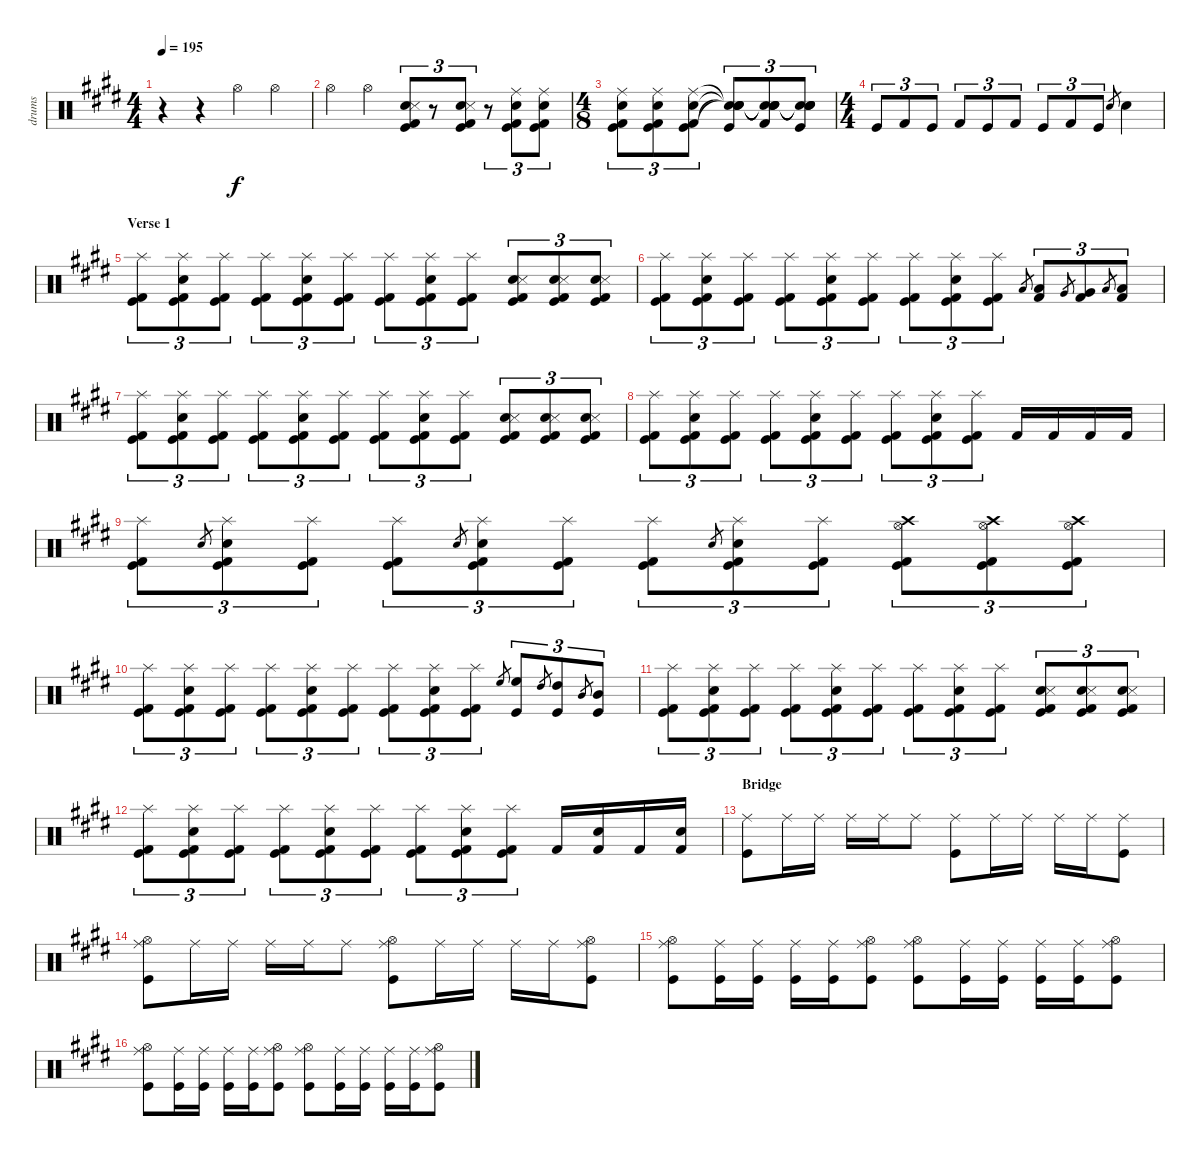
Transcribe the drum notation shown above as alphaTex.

\track ("drums" "drums") {instrument percussion}
\staff {score}
\articulation defaults
\ts (4 4)
\tempo 195
\clef neutral
\ks e
r.4{dy f} r.4 "Hi-Hat (open)".4 "Hi-Hat (open)".4 |
"Hi-Hat (open)".4 "Hi-Hat (open)".4 ("Electric Snare (hit)" "Snare (side stick) 3" "Kick (hit)" "Kick (hit) 2").8{tu (3 2)} r.8{tu (3 2)} ("Electric Snare (hit)" "Snare (side stick) 3" "Kick (hit)" "Kick (hit) 2").8{tu (3 2)} r.8{tu (3 2)} ("Ride (middle)" "Electric Snare (hit)" "Kick (hit)" "Kick (hit) 2").8{tu (3 2)} ("Ride (middle)" "Electric Snare (hit)" "Kick (hit)" "Kick (hit) 2").8{tu (3 2)} |
\ts (4 8)
("Ride (middle)" "Electric Snare (hit)" "Kick (hit)" "Kick (hit) 2").8{tu (3 2)} ("Ride (middle)" "Electric Snare (hit)" "Kick (hit)" "Kick (hit) 2").8{tu (3 2)} ("Ride (middle)" "Electric Snare (hit)" "Kick (hit)" "Kick (hit) 2").8{tu (3 2)} ("Snare (hit)"{t} "Snare (hit)"{t} "Snare (hit)"{t} "Snare (hit)"{t} "Kick (hit)").8{tu (3 2)} ("Snare (hit)"{t} "Snare (hit)"{t} "Snare (hit)"{t} "Snare (hit)"{t} "Kick (hit) 2").8{tu (3 2)} ("Snare (hit)"{t} "Snare (hit)"{t} "Snare (hit)"{t} "Snare (hit)"{t} "Kick (hit)").8{tu (3 2)} |
\ts (4 4)
"Kick (hit)".8{tu (3 2)} "Kick (hit) 2".8{tu (3 2)} "Kick (hit)".8{tu (3 2)} "Kick (hit) 2".8{tu (3 2)} "Kick (hit)".8{tu (3 2)} "Kick (hit) 2".8{tu (3 2)} "Kick (hit)".8{tu (3 2)} "Kick (hit) 2".8{tu (3 2)} "Kick (hit)".8{tu (3 2)} "Snare (hit) 2".8{gr} "Snare (hit) 2".4 |
\section ("" "Verse 1")
("Kick (hit) 2" "Kick (hit)" "Splash (hit)").8{tu (3 2)} ("Kick (hit) 2" "Kick (hit)" "Splash (hit)" "Snare (hit) 2").8{tu (3 2)} ("Kick (hit) 2" "Kick (hit)" "Splash (hit)").8{tu (3 2)} ("Kick (hit) 2" "Kick (hit)" "Splash (hit)").8{tu (3 2)} ("Kick (hit) 2" "Kick (hit)" "Splash (hit)" "Snare (hit) 2").8{tu (3 2)} ("Kick (hit) 2" "Kick (hit)" "Splash (hit)").8{tu (3 2)} ("Kick (hit) 2" "Kick (hit)" "Splash (hit)").8{tu (3 2)} ("Kick (hit) 2" "Kick (hit)" "Splash (hit)" "Snare (hit) 2").8{tu (3 2)} ("Kick (hit) 2" "Kick (hit)" "Splash (hit)").8{tu (3 2)} ("Kick (hit) 2" "Kick (hit)" "Electric Snare (hit)" "Snare (side stick) 3").8{tu (3 2)} ("Kick (hit) 2" "Kick (hit)" "Electric Snare (hit)" "Snare (side stick) 3").8{tu (3 2)} ("Kick (hit) 2" "Kick (hit)" "Electric Snare (hit)" "Snare (side stick) 3").8{tu (3 2)} |
("Kick (hit) 2" "Kick (hit)" "Splash (hit)").8{tu (3 2)} ("Kick (hit) 2" "Kick (hit)" "Splash (hit)" "Snare (hit) 2").8{tu (3 2)} ("Kick (hit) 2" "Kick (hit)" "Splash (hit)").8{tu (3 2)} ("Kick (hit) 2" "Kick (hit)" "Splash (hit)").8{tu (3 2)} ("Kick (hit) 2" "Kick (hit)" "Splash (hit)" "Snare (hit) 2").8{tu (3 2)} ("Kick (hit) 2" "Kick (hit)" "Splash (hit)").8{tu (3 2)} ("Kick (hit) 2" "Kick (hit)" "Splash (hit)").8{tu (3 2)} ("Kick (hit) 2" "Kick (hit)" "Splash (hit)" "Snare (hit) 2").8{tu (3 2)} ("Kick (hit) 2" "Kick (hit)" "Splash (hit)").8{tu (3 2)} "Low Tom (hit)".8{gr} ("Low Tom (hit)" "Kick (hit) 2").8{tu (3 2)} "Very Low Tom (hit)".8{gr} ("Very Low Tom (hit)" "Kick (hit) 2").8{tu (3 2)} "Low Floor Tom (hit)".8{gr} ("Low Floor Tom (hit)" "Kick (hit) 2").8{tu (3 2)} |
("Kick (hit) 2" "Kick (hit)" "Splash (hit)").8{tu (3 2)} ("Kick (hit) 2" "Kick (hit)" "Splash (hit)" "Snare (hit) 2").8{tu (3 2)} ("Kick (hit) 2" "Kick (hit)" "Splash (hit)").8{tu (3 2)} ("Kick (hit) 2" "Kick (hit)" "Splash (hit)").8{tu (3 2)} ("Kick (hit) 2" "Kick (hit)" "Splash (hit)" "Snare (hit) 2").8{tu (3 2)} ("Kick (hit) 2" "Kick (hit)" "Splash (hit)").8{tu (3 2)} ("Kick (hit) 2" "Kick (hit)" "Splash (hit)").8{tu (3 2)} ("Kick (hit) 2" "Kick (hit)" "Splash (hit)" "Snare (hit) 2").8{tu (3 2)} ("Kick (hit) 2" "Kick (hit)" "Splash (hit)").8{tu (3 2)} ("Kick (hit) 2" "Kick (hit)" "Electric Snare (hit)" "Snare (side stick) 3").8{tu (3 2)} ("Kick (hit) 2" "Kick (hit)" "Electric Snare (hit)" "Snare (side stick) 3").8{tu (3 2)} ("Kick (hit) 2" "Kick (hit)" "Electric Snare (hit)" "Snare (side stick) 3").8{tu (3 2)} |
("Kick (hit) 2" "Kick (hit)" "Splash (hit)").8{tu (3 2)} ("Kick (hit) 2" "Kick (hit)" "Splash (hit)" "Snare (hit) 2").8{tu (3 2)} ("Kick (hit) 2" "Kick (hit)" "Splash (hit)").8{tu (3 2)} ("Kick (hit) 2" "Kick (hit)" "Splash (hit)").8{tu (3 2)} ("Kick (hit) 2" "Kick (hit)" "Splash (hit)" "Snare (hit) 2").8{tu (3 2)} ("Kick (hit) 2" "Kick (hit)" "Splash (hit)").8{tu (3 2)} ("Kick (hit) 2" "Kick (hit)" "Splash (hit)").8{tu (3 2)} ("Kick (hit) 2" "Kick (hit)" "Splash (hit)" "Snare (hit) 2").8{tu (3 2)} ("Kick (hit) 2" "Kick (hit)" "Splash (hit)").8{tu (3 2)} "Kick (hit) 2".16 "Kick (hit) 2".16 "Kick (hit) 2".16 "Kick (hit) 2".16 |
("Kick (hit) 2" "Kick (hit)" "Splash (hit)").8{tu (3 2)} "Snare (hit) 2".8{gr} ("Kick (hit) 2" "Kick (hit)" "Splash (hit)" "Snare (hit) 2").8{tu (3 2)} ("Kick (hit) 2" "Kick (hit)" "Splash (hit)").8{tu (3 2)} ("Kick (hit) 2" "Kick (hit)" "Splash (hit)").8{tu (3 2)} "Snare (hit) 2".8{gr} ("Kick (hit) 2" "Kick (hit)" "Splash (hit)" "Snare (hit) 2").8{tu (3 2)} ("Kick (hit) 2" "Kick (hit)" "Splash (hit)").8{tu (3 2)} ("Kick (hit) 2" "Kick (hit)" "Splash (hit)").8{tu (3 2)} "Snare (hit) 2".8{gr} ("Kick (hit) 2" "Kick (hit)" "Splash (hit)" "Snare (hit) 2").8{tu (3 2)} ("Kick (hit) 2" "Kick (hit)" "Splash (hit)").8{tu (3 2)} ("Kick (hit) 2" "Kick (hit)" "Crash high (hit)" "Hi-Hat (open)").8{tu (3 2)} ("Kick (hit) 2" "Kick (hit)" "Crash high (hit)" "Hi-Hat (open)").8{tu (3 2)} ("Kick (hit) 2" "Kick (hit)" "Crash high (hit)" "Hi-Hat (open)").8{tu (3 2)} |
("Kick (hit) 2" "Kick (hit)" "Splash (hit)").8{tu (3 2)} ("Kick (hit) 2" "Kick (hit)" "Splash (hit)" "Snare (hit) 2").8{tu (3 2)} ("Kick (hit) 2" "Kick (hit)" "Splash (hit)").8{tu (3 2)} ("Kick (hit) 2" "Kick (hit)" "Splash (hit)").8{tu (3 2)} ("Kick (hit) 2" "Kick (hit)" "Splash (hit)" "Snare (hit) 2").8{tu (3 2)} ("Kick (hit) 2" "Kick (hit)" "Splash (hit)").8{tu (3 2)} ("Kick (hit) 2" "Kick (hit)" "Splash (hit)").8{tu (3 2)} ("Kick (hit) 2" "Kick (hit)" "Splash (hit)" "Snare (hit) 2").8{tu (3 2)} ("Kick (hit) 2" "Kick (hit)" "Splash (hit)").8{tu (3 2)} "High Floor Tom (hit)".8{gr} ("High Floor Tom (hit)" "Kick (hit)").8{tu (3 2)} "High Tom (hit)".8{gr} ("High Tom (hit)" "Kick (hit)").8{tu (3 2)} "Mid Tom (hit)".8{gr} ("Mid Tom (hit)" "Kick (hit)").8{tu (3 2)} |
("Kick (hit) 2" "Kick (hit)" "Splash (hit)").8{tu (3 2)} ("Kick (hit) 2" "Kick (hit)" "Splash (hit)" "Snare (hit) 2").8{tu (3 2)} ("Kick (hit) 2" "Kick (hit)" "Splash (hit)").8{tu (3 2)} ("Kick (hit) 2" "Kick (hit)" "Splash (hit)").8{tu (3 2)} ("Kick (hit) 2" "Kick (hit)" "Splash (hit)" "Snare (hit) 2").8{tu (3 2)} ("Kick (hit) 2" "Kick (hit)" "Splash (hit)").8{tu (3 2)} ("Kick (hit) 2" "Kick (hit)" "Splash (hit)").8{tu (3 2)} ("Kick (hit) 2" "Kick (hit)" "Splash (hit)" "Snare (hit) 2").8{tu (3 2)} ("Kick (hit) 2" "Kick (hit)" "Splash (hit)").8{tu (3 2)} ("Kick (hit) 2" "Kick (hit)" "Electric Snare (hit)" "Snare (side stick) 3").8{tu (3 2)} ("Kick (hit) 2" "Kick (hit)" "Electric Snare (hit)" "Snare (side stick) 3").8{tu (3 2)} ("Kick (hit) 2" "Kick (hit)" "Electric Snare (hit)" "Snare (side stick) 3").8{tu (3 2)} |
("Kick (hit) 2" "Kick (hit)" "Splash (hit)").8{tu (3 2)} ("Kick (hit) 2" "Kick (hit)" "Splash (hit)" "Snare (hit) 2").8{tu (3 2)} ("Kick (hit) 2" "Kick (hit)" "Splash (hit)").8{tu (3 2)} ("Kick (hit) 2" "Kick (hit)" "Splash (hit)").8{tu (3 2)} ("Kick (hit) 2" "Kick (hit)" "Splash (hit)" "Snare (hit) 2").8{tu (3 2)} ("Kick (hit) 2" "Kick (hit)" "Splash (hit)").8{tu (3 2)} ("Kick (hit) 2" "Kick (hit)" "Splash (hit)").8{tu (3 2)} ("Kick (hit) 2" "Kick (hit)" "Splash (hit)" "Snare (hit) 2").8{tu (3 2)} ("Kick (hit) 2" "Kick (hit)" "Splash (hit)").8{tu (3 2)} "Kick (hit) 2".16 ("Snare (hit) 2" "Kick (hit) 2").16 "Kick (hit) 2".16 ("Snare (hit) 2" "Kick (hit) 2").16 |
\section ("" "Bridge")
("Ride (middle)" "Kick (hit)").8 "Ride (middle)".16 "Ride (middle)".16 "Ride (middle)".16 "Ride (middle)".16 "Ride (middle)".8 ("Ride (middle)" "Kick (hit)").8 "Ride (middle)".16 "Ride (middle)".16 "Ride (middle)".16 "Ride (middle)".16 ("Ride (middle)" "Kick (hit)").8 |
("Ride (middle)" "Hi-Hat (open)" "Kick (hit)").8 "Ride (middle)".16 "Ride (middle)".16 "Ride (middle)".16 "Ride (middle)".16 "Ride (middle)".8 ("Ride (middle)" "Hi-Hat (open)" "Kick (hit)").8 "Ride (middle)".16 "Ride (middle)".16 "Ride (middle)".16 "Ride (middle)".16 ("Ride (middle)" "Hi-Hat (open)" "Kick (hit)").8 |
("Ride (middle)" "Hi-Hat (open)" "Kick (hit)").8 ("Ride (middle)" "Kick (hit)").16 ("Ride (middle)" "Kick (hit)").16 ("Ride (middle)" "Kick (hit)").16 ("Ride (middle)" "Kick (hit)").16 ("Ride (middle)" "Hi-Hat (open)" "Kick (hit)").8 ("Ride (middle)" "Hi-Hat (open)" "Kick (hit)").8 ("Ride (middle)" "Kick (hit)").16 ("Ride (middle)" "Kick (hit)").16 ("Ride (middle)" "Kick (hit)").16 ("Ride (middle)" "Kick (hit)").16 ("Ride (middle)" "Hi-Hat (open)" "Kick (hit)").8 |
("Ride (middle)" "Hi-Hat (open)" "Kick (hit)").8 ("Ride (middle)" "Kick (hit)").16 ("Ride (middle)" "Kick (hit)").16 ("Ride (middle)" "Kick (hit)").16 ("Ride (middle)" "Kick (hit)").16 ("Ride (middle)" "Hi-Hat (open)" "Kick (hit)").8 ("Ride (middle)" "Hi-Hat (open)" "Kick (hit)").8 ("Ride (middle)" "Kick (hit)").16 ("Ride (middle)" "Kick (hit)").16 ("Ride (middle)" "Kick (hit)").16 ("Ride (middle)" "Kick (hit)").16 ("Ride (middle)" "Hi-Hat (open)" "Kick (hit)").8
